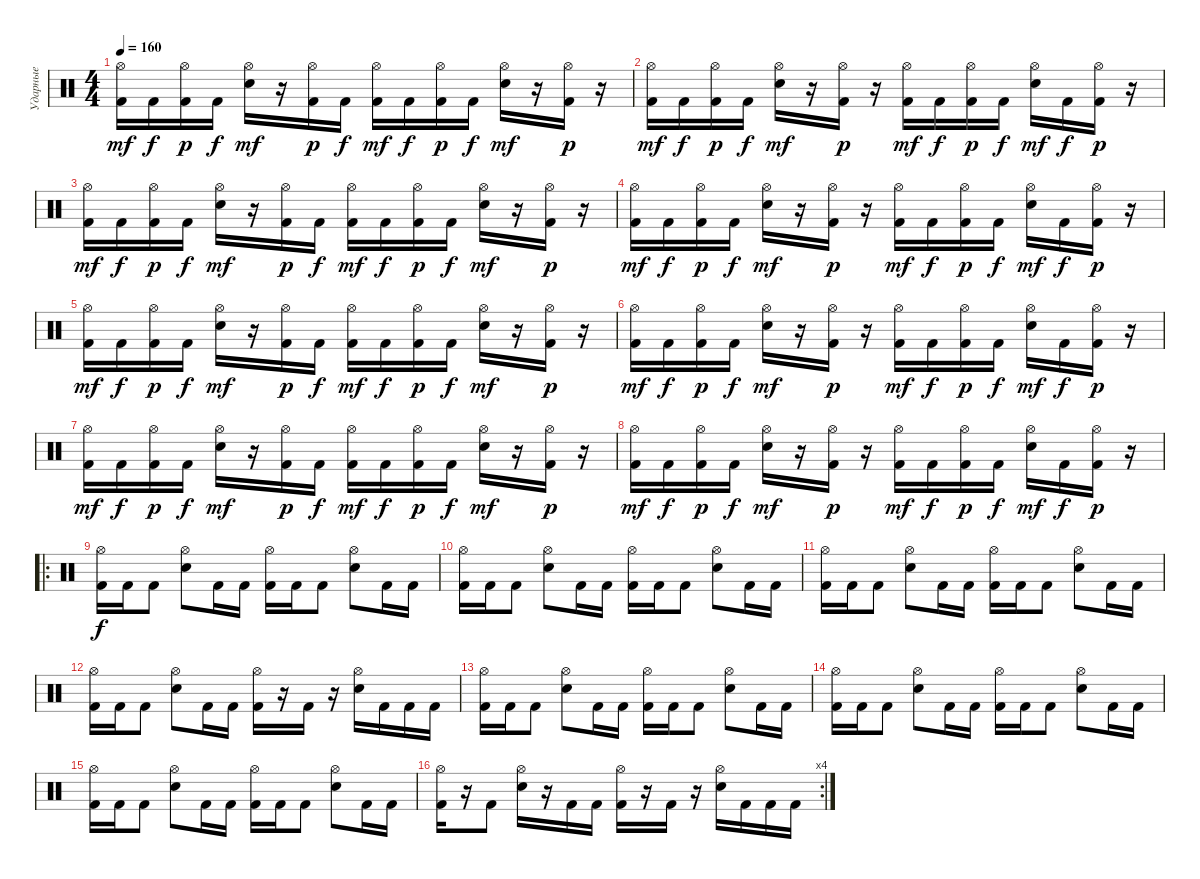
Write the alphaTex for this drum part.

\track ("Ударные" "Ударные") {instrument percussion}
\staff {score}
\articulation defaults
\ts (4 4)
\tempo 160
\clef neutral
\ks c
("Hi-Hat (open)" "Kick (hit) 2").16{dy mf} "Kick (hit) 2".16{dy f} ("Hi-Hat (open)" "Kick (hit) 2").16{dy p} "Kick (hit) 2".16{dy f} ("Hi-Hat (open)" "Electric Snare (hit)").16{dy mf} r.16 ("Hi-Hat (open)" "Kick (hit) 2").16{dy p} "Kick (hit) 2".16{dy f} ("Hi-Hat (open)" "Kick (hit) 2").16{dy mf} "Kick (hit) 2".16{dy f} ("Hi-Hat (open)" "Kick (hit) 2").16{dy p} "Kick (hit) 2".16{dy f} ("Hi-Hat (open)" "Electric Snare (hit)").16{dy mf} r.16 ("Hi-Hat (open)" "Kick (hit) 2").16{dy p} r.16 |
("Hi-Hat (open)" "Kick (hit) 2").16{dy mf} "Kick (hit) 2".16{dy f} ("Hi-Hat (open)" "Kick (hit) 2").16{dy p} "Kick (hit) 2".16{dy f} ("Hi-Hat (open)" "Electric Snare (hit)").16{dy mf} r.16 ("Hi-Hat (open)" "Kick (hit) 2").16{dy p} r.16 ("Hi-Hat (open)" "Kick (hit) 2").16{dy mf} "Kick (hit) 2".16{dy f} ("Hi-Hat (open)" "Kick (hit) 2").16{dy p} "Kick (hit) 2".16{dy f} ("Hi-Hat (open)" "Electric Snare (hit)").16{dy mf} "Kick (hit) 2".16{dy f} ("Hi-Hat (open)" "Kick (hit) 2").16{dy p} r.16 |
("Hi-Hat (open)" "Kick (hit) 2").16{dy mf} "Kick (hit) 2".16{dy f} ("Hi-Hat (open)" "Kick (hit) 2").16{dy p} "Kick (hit) 2".16{dy f} ("Hi-Hat (open)" "Electric Snare (hit)").16{dy mf} r.16 ("Hi-Hat (open)" "Kick (hit) 2").16{dy p} "Kick (hit) 2".16{dy f} ("Hi-Hat (open)" "Kick (hit) 2").16{dy mf} "Kick (hit) 2".16{dy f} ("Hi-Hat (open)" "Kick (hit) 2").16{dy p} "Kick (hit) 2".16{dy f} ("Hi-Hat (open)" "Electric Snare (hit)").16{dy mf} r.16 ("Hi-Hat (open)" "Kick (hit) 2").16{dy p} r.16 |
("Hi-Hat (open)" "Kick (hit) 2").16{dy mf} "Kick (hit) 2".16{dy f} ("Hi-Hat (open)" "Kick (hit) 2").16{dy p} "Kick (hit) 2".16{dy f} ("Hi-Hat (open)" "Electric Snare (hit)").16{dy mf} r.16 ("Hi-Hat (open)" "Kick (hit) 2").16{dy p} r.16 ("Hi-Hat (open)" "Kick (hit) 2").16{dy mf} "Kick (hit) 2".16{dy f} ("Hi-Hat (open)" "Kick (hit) 2").16{dy p} "Kick (hit) 2".16{dy f} ("Hi-Hat (open)" "Electric Snare (hit)").16{dy mf} "Kick (hit) 2".16{dy f} ("Hi-Hat (open)" "Kick (hit) 2").16{dy p} r.16 |
("Hi-Hat (open)" "Kick (hit) 2").16{dy mf} "Kick (hit) 2".16{dy f} ("Hi-Hat (open)" "Kick (hit) 2").16{dy p} "Kick (hit) 2".16{dy f} ("Hi-Hat (open)" "Electric Snare (hit)").16{dy mf} r.16 ("Hi-Hat (open)" "Kick (hit) 2").16{dy p} "Kick (hit) 2".16{dy f} ("Hi-Hat (open)" "Kick (hit) 2").16{dy mf} "Kick (hit) 2".16{dy f} ("Hi-Hat (open)" "Kick (hit) 2").16{dy p} "Kick (hit) 2".16{dy f} ("Hi-Hat (open)" "Electric Snare (hit)").16{dy mf} r.16 ("Hi-Hat (open)" "Kick (hit) 2").16{dy p} r.16 |
("Hi-Hat (open)" "Kick (hit) 2").16{dy mf} "Kick (hit) 2".16{dy f} ("Hi-Hat (open)" "Kick (hit) 2").16{dy p} "Kick (hit) 2".16{dy f} ("Hi-Hat (open)" "Electric Snare (hit)").16{dy mf} r.16 ("Hi-Hat (open)" "Kick (hit) 2").16{dy p} r.16 ("Hi-Hat (open)" "Kick (hit) 2").16{dy mf} "Kick (hit) 2".16{dy f} ("Hi-Hat (open)" "Kick (hit) 2").16{dy p} "Kick (hit) 2".16{dy f} ("Hi-Hat (open)" "Electric Snare (hit)").16{dy mf} "Kick (hit) 2".16{dy f} ("Hi-Hat (open)" "Kick (hit) 2").16{dy p} r.16 |
("Hi-Hat (open)" "Kick (hit) 2").16{dy mf} "Kick (hit) 2".16{dy f} ("Hi-Hat (open)" "Kick (hit) 2").16{dy p} "Kick (hit) 2".16{dy f} ("Hi-Hat (open)" "Electric Snare (hit)").16{dy mf} r.16 ("Hi-Hat (open)" "Kick (hit) 2").16{dy p} "Kick (hit) 2".16{dy f} ("Hi-Hat (open)" "Kick (hit) 2").16{dy mf} "Kick (hit) 2".16{dy f} ("Hi-Hat (open)" "Kick (hit) 2").16{dy p} "Kick (hit) 2".16{dy f} ("Hi-Hat (open)" "Electric Snare (hit)").16{dy mf} r.16 ("Hi-Hat (open)" "Kick (hit) 2").16{dy p} r.16 |
("Hi-Hat (open)" "Kick (hit) 2").16{dy mf} "Kick (hit) 2".16{dy f} ("Hi-Hat (open)" "Kick (hit) 2").16{dy p} "Kick (hit) 2".16{dy f} ("Hi-Hat (open)" "Electric Snare (hit)").16{dy mf} r.16 ("Hi-Hat (open)" "Kick (hit) 2").16{dy p} r.16 ("Hi-Hat (open)" "Kick (hit) 2").16{dy mf} "Kick (hit) 2".16{dy f} ("Hi-Hat (open)" "Kick (hit) 2").16{dy p} "Kick (hit) 2".16{dy f} ("Hi-Hat (open)" "Electric Snare (hit)").16{dy mf} "Kick (hit) 2".16{dy f} ("Hi-Hat (open)" "Kick (hit) 2").16{dy p} r.16 |
\ro
("Hi-Hat (open)" "Kick (hit) 2").16{dy f} "Kick (hit) 2".16 "Kick (hit) 2".8 ("Hi-Hat (open)" "Electric Snare (hit)").8 "Kick (hit) 2".16 "Kick (hit) 2".16 ("Hi-Hat (open)" "Kick (hit) 2").16 "Kick (hit) 2".16 "Kick (hit) 2".8 ("Hi-Hat (open)" "Electric Snare (hit)").8 "Kick (hit) 2".16 "Kick (hit) 2".16 |
("Hi-Hat (open)" "Kick (hit) 2").16 "Kick (hit) 2".16 "Kick (hit) 2".8 ("Hi-Hat (open)" "Electric Snare (hit)").8 "Kick (hit) 2".16 "Kick (hit) 2".16 ("Hi-Hat (open)" "Kick (hit) 2").16 "Kick (hit) 2".16 "Kick (hit) 2".8 ("Hi-Hat (open)" "Electric Snare (hit)").8 "Kick (hit) 2".16 "Kick (hit) 2".16 |
("Hi-Hat (open)" "Kick (hit) 2").16 "Kick (hit) 2".16 "Kick (hit) 2".8 ("Hi-Hat (open)" "Electric Snare (hit)").8 "Kick (hit) 2".16 "Kick (hit) 2".16 ("Hi-Hat (open)" "Kick (hit) 2").16 "Kick (hit) 2".16 "Kick (hit) 2".8 ("Hi-Hat (open)" "Electric Snare (hit)").8 "Kick (hit) 2".16 "Kick (hit) 2".16 |
("Hi-Hat (open)" "Kick (hit) 2").16 "Kick (hit) 2".16 "Kick (hit) 2".8 ("Hi-Hat (open)" "Electric Snare (hit)").8 "Kick (hit) 2".16 "Kick (hit) 2".16 ("Hi-Hat (open)" "Kick (hit) 2").16 r.16 "Kick (hit) 2".16 r.16 ("Hi-Hat (open)" "Electric Snare (hit)").16 "Kick (hit) 2".16 "Kick (hit) 2".16 "Kick (hit) 2".16 |
("Hi-Hat (open)" "Kick (hit) 2").16 "Kick (hit) 2".16 "Kick (hit) 2".8 ("Hi-Hat (open)" "Electric Snare (hit)").8 "Kick (hit) 2".16 "Kick (hit) 2".16 ("Hi-Hat (open)" "Kick (hit) 2").16 "Kick (hit) 2".16 "Kick (hit) 2".8 ("Hi-Hat (open)" "Electric Snare (hit)").8 "Kick (hit) 2".16 "Kick (hit) 2".16 |
("Hi-Hat (open)" "Kick (hit) 2").16 "Kick (hit) 2".16 "Kick (hit) 2".8 ("Hi-Hat (open)" "Electric Snare (hit)").8 "Kick (hit) 2".16 "Kick (hit) 2".16 ("Hi-Hat (open)" "Kick (hit) 2").16 "Kick (hit) 2".16 "Kick (hit) 2".8 ("Hi-Hat (open)" "Electric Snare (hit)").8 "Kick (hit) 2".16 "Kick (hit) 2".16 |
("Hi-Hat (open)" "Kick (hit) 2").16 "Kick (hit) 2".16 "Kick (hit) 2".8 ("Hi-Hat (open)" "Electric Snare (hit)").8 "Kick (hit) 2".16 "Kick (hit) 2".16 ("Hi-Hat (open)" "Kick (hit) 2").16 "Kick (hit) 2".16 "Kick (hit) 2".8 ("Hi-Hat (open)" "Electric Snare (hit)").8 "Kick (hit) 2".16 "Kick (hit) 2".16 |
\rc 4
("Hi-Hat (open)" "Kick (hit) 2").16 r.16 "Kick (hit) 2".8 ("Hi-Hat (open)" "Electric Snare (hit)").16 r.16 "Kick (hit) 2".16 "Kick (hit) 2".16 ("Hi-Hat (open)" "Kick (hit) 2").16 r.16 "Kick (hit) 2".16 r.16 ("Hi-Hat (open)" "Electric Snare (hit)").16 "Kick (hit) 2".16 "Kick (hit) 2".16 "Kick (hit) 2".16
